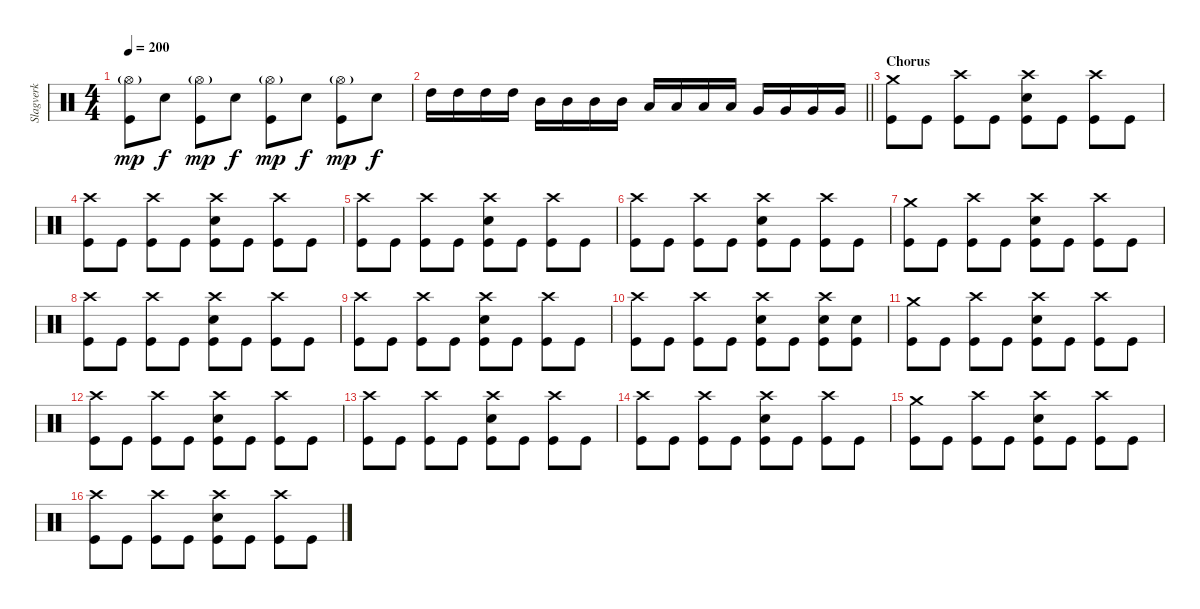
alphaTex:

\track ("Slagverk" "Slagverk") {instrument percussion}
\staff {score}
\articulation defaults
\ts (4 4)
\tempo 200
\clef neutral
\ks c
("Hi-Hat (open)"{g} "Kick (hit)").8{dy mp} "Snare (hit) 2".8{dy f} ("Hi-Hat (open)"{g} "Kick (hit)").8{dy mp} "Snare (hit) 2".8{dy f} ("Hi-Hat (open)"{g} "Kick (hit)").8{dy mp} "Snare (hit) 2".8{dy f} ("Hi-Hat (open)"{g} "Kick (hit)").8{dy mp} "Snare (hit) 2".8{dy f} |
\barLineRight lightlight "High Tom (hit)".16 "High Tom (hit)".16 "High Tom (hit)".16 "High Tom (hit)".16 "Mid Tom (hit)".16 "Mid Tom (hit)".16 "Mid Tom (hit)".16 "Mid Tom (hit)".16 "Low Tom (hit)".16 "Low Tom (hit)".16 "Low Tom (hit)".16 "Low Tom (hit)".16 "Very Low Tom (hit)".16 "Very Low Tom (hit)".16 "Very Low Tom (hit)".16 "Very Low Tom (hit)".16
|
\section ("" "Chorus")
("Crash medium (hit)" "Kick (hit)").8 "Kick (hit)".8 ("Crash high (hit)" "Kick (hit)").8 "Kick (hit)".8 ("Crash high (hit)" "Snare (hit) 2" "Kick (hit)").8 "Kick (hit)".8 ("Crash high (hit)" "Kick (hit)").8 "Kick (hit)".8 |
("Crash high (hit)" "Kick (hit)").8 "Kick (hit)".8 ("Crash high (hit)" "Kick (hit)").8 "Kick (hit)".8 ("Crash high (hit)" "Snare (hit) 2" "Kick (hit)").8 "Kick (hit)".8 ("Crash high (hit)" "Kick (hit)").8 "Kick (hit)".8 |
("Crash high (hit)" "Kick (hit)").8 "Kick (hit)".8 ("Crash high (hit)" "Kick (hit)").8 "Kick (hit)".8 ("Crash high (hit)" "Snare (hit) 2" "Kick (hit)").8 "Kick (hit)".8 ("Crash high (hit)" "Kick (hit)").8 "Kick (hit)".8 |
("Crash high (hit)" "Kick (hit)").8 "Kick (hit)".8 ("Crash high (hit)" "Kick (hit)").8 "Kick (hit)".8 ("Crash high (hit)" "Snare (hit) 2" "Kick (hit)").8 "Kick (hit)".8 ("Crash high (hit)" "Kick (hit)").8 "Kick (hit)".8 |
("Crash medium (hit)" "Kick (hit)").8 "Kick (hit)".8 ("Crash high (hit)" "Kick (hit)").8 "Kick (hit)".8 ("Crash high (hit)" "Snare (hit) 2" "Kick (hit)").8 "Kick (hit)".8 ("Crash high (hit)" "Kick (hit)").8 "Kick (hit)".8 |
("Crash high (hit)" "Kick (hit)").8 "Kick (hit)".8 ("Crash high (hit)" "Kick (hit)").8 "Kick (hit)".8 ("Crash high (hit)" "Snare (hit) 2" "Kick (hit)").8 "Kick (hit)".8 ("Crash high (hit)" "Kick (hit)").8 "Kick (hit)".8 |
("Crash high (hit)" "Kick (hit)").8 "Kick (hit)".8 ("Crash high (hit)" "Kick (hit)").8 "Kick (hit)".8 ("Crash high (hit)" "Snare (hit) 2" "Kick (hit)").8 "Kick (hit)".8 ("Crash high (hit)" "Kick (hit)").8 "Kick (hit)".8 |
("Crash high (hit)" "Kick (hit)").8 "Kick (hit)".8 ("Crash high (hit)" "Kick (hit)").8 "Kick (hit)".8 ("Crash high (hit)" "Snare (hit) 2" "Kick (hit)").8 "Kick (hit)".8 ("Crash high (hit)" "Snare (hit) 2" "Kick (hit)").8 ("Snare (hit) 2" "Kick (hit)").8 |
("Crash medium (hit)" "Kick (hit)").8 "Kick (hit)".8 ("Crash high (hit)" "Kick (hit)").8 "Kick (hit)".8 ("Crash high (hit)" "Snare (hit) 2" "Kick (hit)").8 "Kick (hit)".8 ("Crash high (hit)" "Kick (hit)").8 "Kick (hit)".8 |
("Crash high (hit)" "Kick (hit)").8 "Kick (hit)".8 ("Crash high (hit)" "Kick (hit)").8 "Kick (hit)".8 ("Crash high (hit)" "Snare (hit) 2" "Kick (hit)").8 "Kick (hit)".8 ("Crash high (hit)" "Kick (hit)").8 "Kick (hit)".8 |
("Crash high (hit)" "Kick (hit)").8 "Kick (hit)".8 ("Crash high (hit)" "Kick (hit)").8 "Kick (hit)".8 ("Crash high (hit)" "Snare (hit) 2" "Kick (hit)").8 "Kick (hit)".8 ("Crash high (hit)" "Kick (hit)").8 "Kick (hit)".8 |
("Crash high (hit)" "Kick (hit)").8 "Kick (hit)".8 ("Crash high (hit)" "Kick (hit)").8 "Kick (hit)".8 ("Crash high (hit)" "Snare (hit) 2" "Kick (hit)").8 "Kick (hit)".8 ("Crash high (hit)" "Kick (hit)").8 "Kick (hit)".8 |
("Crash medium (hit)" "Kick (hit)").8 "Kick (hit)".8 ("Crash high (hit)" "Kick (hit)").8 "Kick (hit)".8 ("Crash high (hit)" "Snare (hit) 2" "Kick (hit)").8 "Kick (hit)".8 ("Crash high (hit)" "Kick (hit)").8 "Kick (hit)".8 |
("Crash high (hit)" "Kick (hit)").8 "Kick (hit)".8 ("Crash high (hit)" "Kick (hit)").8 "Kick (hit)".8 ("Crash high (hit)" "Snare (hit) 2" "Kick (hit)").8 "Kick (hit)".8 ("Crash high (hit)" "Kick (hit)").8 "Kick (hit)".8
